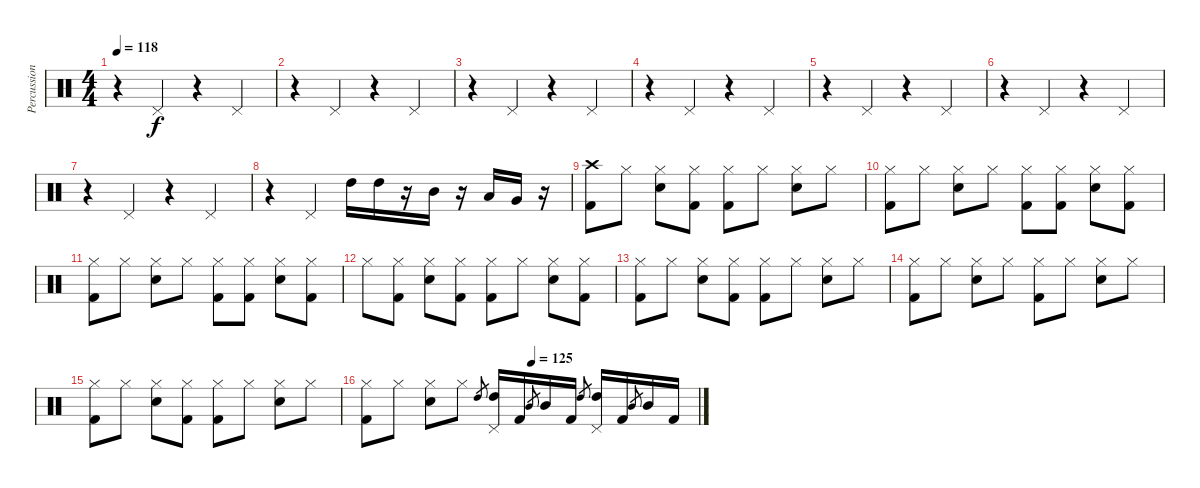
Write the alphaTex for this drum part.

\track ("Percussion" "Percussion") {instrument percussion}
\staff {score}
\articulation defaults
\ts (4 4)
\tempo 118
\clef neutral
\ks c
r.4{dy f} "Pedal Hi-Hat (hit)".4 r.4 "Pedal Hi-Hat (hit)".4 |
r.4 "Pedal Hi-Hat (hit)".4 r.4 "Pedal Hi-Hat (hit)".4 |
r.4 "Pedal Hi-Hat (hit)".4 r.4 "Pedal Hi-Hat (hit)".4 |
r.4 "Pedal Hi-Hat (hit)".4 r.4 "Pedal Hi-Hat (hit)".4 |
r.4 "Pedal Hi-Hat (hit)".4 r.4 "Pedal Hi-Hat (hit)".4 |
r.4 "Pedal Hi-Hat (hit)".4 r.4 "Pedal Hi-Hat (hit)".4 |
r.4 "Pedal Hi-Hat (hit)".4 r.4 "Pedal Hi-Hat (hit)".4 |
r.4 "Pedal Hi-Hat (hit)".4 "High Tom (hit)".16 "High Tom (hit)".16 r.16 "Mid Tom (hit)".16 r.16 "Low Tom (hit)".16 "Very Low Tom (hit)".16 r.16 |
("Crash high (hit)" "Kick (hit) 2").8 "Hi-Hat (closed)".8 ("Hi-Hat (closed)" "Snare (hit) 2").8 ("Hi-Hat (closed)" "Kick (hit) 2").8 ("Hi-Hat (closed)" "Kick (hit) 2").8 "Hi-Hat (closed)".8 ("Hi-Hat (closed)" "Snare (hit) 2").8 "Hi-Hat (closed)".8 |
("Hi-Hat (closed)" "Kick (hit) 2").8 "Hi-Hat (closed)".8 ("Hi-Hat (closed)" "Snare (hit) 2").8 "Hi-Hat (closed)".8 ("Hi-Hat (closed)" "Kick (hit) 2").8 ("Hi-Hat (closed)" "Kick (hit) 2").8 ("Hi-Hat (closed)" "Snare (hit) 2").8 ("Hi-Hat (closed)" "Kick (hit) 2").8 |
("Hi-Hat (closed)" "Kick (hit) 2").8 "Hi-Hat (closed)".8 ("Hi-Hat (closed)" "Snare (hit) 2").8 "Hi-Hat (closed)".8 ("Hi-Hat (closed)" "Kick (hit) 2").8 ("Hi-Hat (closed)" "Kick (hit) 2").8 ("Hi-Hat (closed)" "Snare (hit) 2").8 ("Hi-Hat (closed)" "Kick (hit) 2").8 |
"Hi-Hat (closed)".8 ("Hi-Hat (closed)" "Kick (hit) 2").8 ("Hi-Hat (closed)" "Snare (hit) 2").8 ("Hi-Hat (closed)" "Kick (hit) 2").8 ("Hi-Hat (closed)" "Kick (hit) 2").8 "Hi-Hat (closed)".8 ("Hi-Hat (closed)" "Snare (hit) 2").8 ("Hi-Hat (closed)" "Kick (hit) 2").8 |
("Hi-Hat (closed)" "Kick (hit) 2").8 "Hi-Hat (closed)".8 ("Hi-Hat (closed)" "Snare (hit) 2").8 ("Hi-Hat (closed)" "Kick (hit) 2").8 ("Hi-Hat (closed)" "Kick (hit) 2").8 "Hi-Hat (closed)".8 ("Hi-Hat (closed)" "Snare (hit) 2").8 "Hi-Hat (closed)".8 |
("Hi-Hat (closed)" "Kick (hit) 2").8 "Hi-Hat (closed)".8 ("Hi-Hat (closed)" "Snare (hit) 2").8 "Hi-Hat (closed)".8 ("Hi-Hat (closed)" "Kick (hit) 2").8 "Hi-Hat (closed)".8 ("Hi-Hat (closed)" "Snare (hit) 2").8 "Hi-Hat (closed)".8 |
("Hi-Hat (closed)" "Kick (hit) 2").8 "Hi-Hat (closed)".8 ("Hi-Hat (closed)" "Snare (hit) 2").8 ("Hi-Hat (closed)" "Kick (hit) 2").8 ("Hi-Hat (closed)" "Kick (hit) 2").8 "Hi-Hat (closed)".8 ("Hi-Hat (closed)" "Snare (hit) 2").8 "Hi-Hat (closed)".8 |
\tempo (125 0.5)
("Hi-Hat (closed)" "Kick (hit) 2").8 "Hi-Hat (closed)".8 ("Hi-Hat (closed)" "Snare (hit) 2").8 "Hi-Hat (closed)".8 "High Tom (hit)".8{gr} ("Pedal Hi-Hat (hit)" "High Tom (hit)").16 "Kick (hit) 2".16 "Mid Tom (hit)".8{gr} "Mid Tom (hit)".16 "Kick (hit) 2".16 "High Tom (hit)".8{gr} ("Pedal Hi-Hat (hit)" "High Tom (hit)").16 "Kick (hit) 2".16 "Mid Tom (hit)".8{gr} "Mid Tom (hit)".16 "Kick (hit) 2".16
